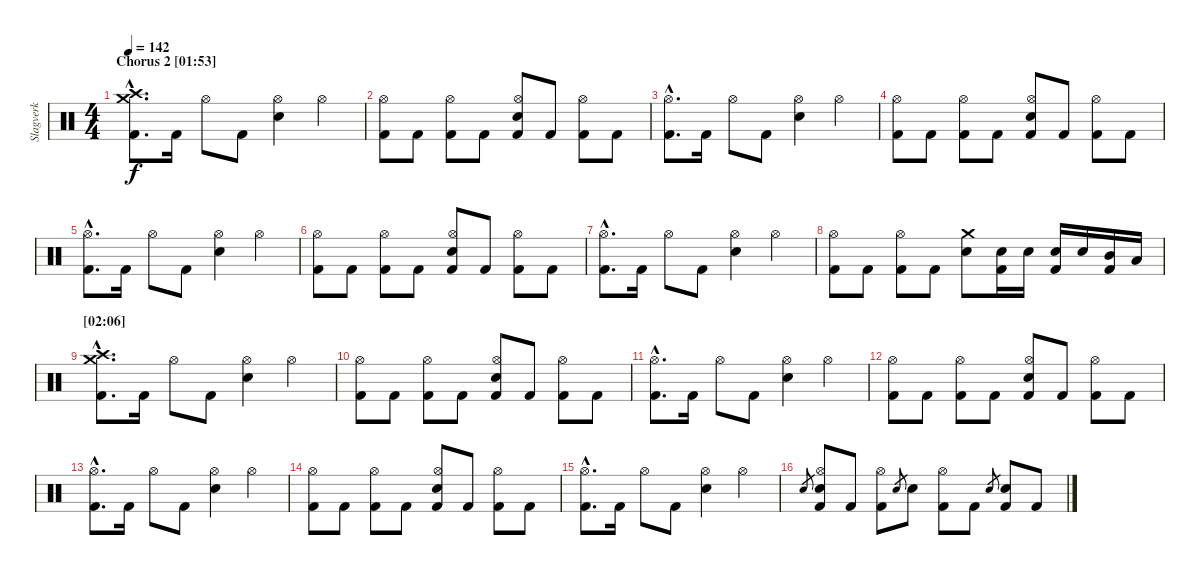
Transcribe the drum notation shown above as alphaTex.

\track ("Slagverk" "Slagverk") {instrument percussion}
\staff {score}
\articulation defaults
\ts (4 4)
\section ("" "Chorus 2 [01:53]")
\tempo 142
\clef neutral
\ks c
("Crash medium (hit)"{hac} "Crash high (hit)"{hac} "Kick (hit) 2"{hac}).8{d dy f} "Kick (hit) 2".16 "Hi-Hat (open)".8 "Kick (hit) 2".8 ("Hi-Hat (open)" "Electric Snare (hit)").4 "Hi-Hat (open)".4 |
("Hi-Hat (open)" "Kick (hit) 2").8 "Kick (hit) 2".8 ("Hi-Hat (open)" "Kick (hit) 2").8 "Kick (hit) 2".8 ("Hi-Hat (open)" "Electric Snare (hit)" "Kick (hit) 2").8 "Kick (hit) 2".8 ("Hi-Hat (open)" "Kick (hit) 2").8 "Kick (hit) 2".8 |
("Hi-Hat (open)"{hac} "Kick (hit) 2"{hac}).8{d} "Kick (hit) 2".16 "Hi-Hat (open)".8 "Kick (hit) 2".8 ("Hi-Hat (open)" "Electric Snare (hit)").4 "Hi-Hat (open)".4 |
("Hi-Hat (open)" "Kick (hit) 2").8 "Kick (hit) 2".8 ("Hi-Hat (open)" "Kick (hit) 2").8 "Kick (hit) 2".8 ("Hi-Hat (open)" "Electric Snare (hit)" "Kick (hit) 2").8 "Kick (hit) 2".8 ("Hi-Hat (open)" "Kick (hit) 2").8 "Kick (hit) 2".8 |
("Hi-Hat (open)"{hac} "Kick (hit) 2"{hac}).8{d} "Kick (hit) 2".16 "Hi-Hat (open)".8 "Kick (hit) 2".8 ("Hi-Hat (open)" "Electric Snare (hit)").4 "Hi-Hat (open)".4 |
("Hi-Hat (open)" "Kick (hit) 2").8 "Kick (hit) 2".8 ("Hi-Hat (open)" "Kick (hit) 2").8 "Kick (hit) 2".8 ("Hi-Hat (open)" "Electric Snare (hit)" "Kick (hit) 2").8 "Kick (hit) 2".8 ("Hi-Hat (open)" "Kick (hit) 2").8 "Kick (hit) 2".8 |
("Hi-Hat (open)"{hac} "Kick (hit) 2"{hac}).8{d} "Kick (hit) 2".16 "Hi-Hat (open)".8 "Kick (hit) 2".8 ("Hi-Hat (open)" "Electric Snare (hit)").4 "Hi-Hat (open)".4 |
("Hi-Hat (open)" "Kick (hit) 2").8 "Kick (hit) 2".8 ("Hi-Hat (open)" "Kick (hit) 2").8 "Kick (hit) 2".8 ("Crash medium (hit)" "Electric Snare (hit)").8 ("Electric Snare (hit)" "Kick (hit) 2").16 "Electric Snare (hit)".16 ("Electric Snare (hit)" "Kick (hit) 2").16 "Electric Snare (hit)".16 ("Mid Tom (hit)" "Kick (hit) 2").16 "Low Tom (hit)".16 |
\section ("" "[02:06]")
("Crash medium (hit)"{hac} "Crash high (hit)"{hac} "Kick (hit) 2"{hac}).8{d} "Kick (hit) 2".16 "Hi-Hat (open)".8 "Kick (hit) 2".8 ("Hi-Hat (open)" "Electric Snare (hit)").4 "Hi-Hat (open)".4 |
("Hi-Hat (open)" "Kick (hit) 2").8 "Kick (hit) 2".8 ("Hi-Hat (open)" "Kick (hit) 2").8 "Kick (hit) 2".8 ("Hi-Hat (open)" "Electric Snare (hit)" "Kick (hit) 2").8 "Kick (hit) 2".8 ("Hi-Hat (open)" "Kick (hit) 2").8 "Kick (hit) 2".8 |
("Hi-Hat (open)"{hac} "Kick (hit) 2"{hac}).8{d} "Kick (hit) 2".16 "Hi-Hat (open)".8 "Kick (hit) 2".8 ("Hi-Hat (open)" "Electric Snare (hit)").4 "Hi-Hat (open)".4 |
("Hi-Hat (open)" "Kick (hit) 2").8 "Kick (hit) 2".8 ("Hi-Hat (open)" "Kick (hit) 2").8 "Kick (hit) 2".8 ("Hi-Hat (open)" "Electric Snare (hit)" "Kick (hit) 2").8 "Kick (hit) 2".8 ("Hi-Hat (open)" "Kick (hit) 2").8 "Kick (hit) 2".8 |
("Hi-Hat (open)"{hac} "Kick (hit) 2"{hac}).8{d} "Kick (hit) 2".16 "Hi-Hat (open)".8 "Kick (hit) 2".8 ("Hi-Hat (open)" "Electric Snare (hit)").4 "Hi-Hat (open)".4 |
("Hi-Hat (open)" "Kick (hit) 2").8 "Kick (hit) 2".8 ("Hi-Hat (open)" "Kick (hit) 2").8 "Kick (hit) 2".8 ("Hi-Hat (open)" "Electric Snare (hit)" "Kick (hit) 2").8 "Kick (hit) 2".8 ("Hi-Hat (open)" "Kick (hit) 2").8 "Kick (hit) 2".8 |
("Hi-Hat (open)"{hac} "Kick (hit) 2"{hac}).8{d} "Kick (hit) 2".16 "Hi-Hat (open)".8 "Kick (hit) 2".8 ("Hi-Hat (open)" "Electric Snare (hit)").4 "Hi-Hat (open)".4 |
"Electric Snare (hit)".8{gr} ("Hi-Hat (open)" "Electric Snare (hit)" "Kick (hit) 2").8 "Kick (hit) 2".8 ("Hi-Hat (open)" "Kick (hit) 2").8 "Electric Snare (hit)".8{gr} "Electric Snare (hit)".8 ("Hi-Hat (open)" "Kick (hit) 2").8 "Kick (hit) 2".8 "Electric Snare (hit)".8{gr} ("Electric Snare (hit)" "Kick (hit) 2").8 "Kick (hit) 2".8
